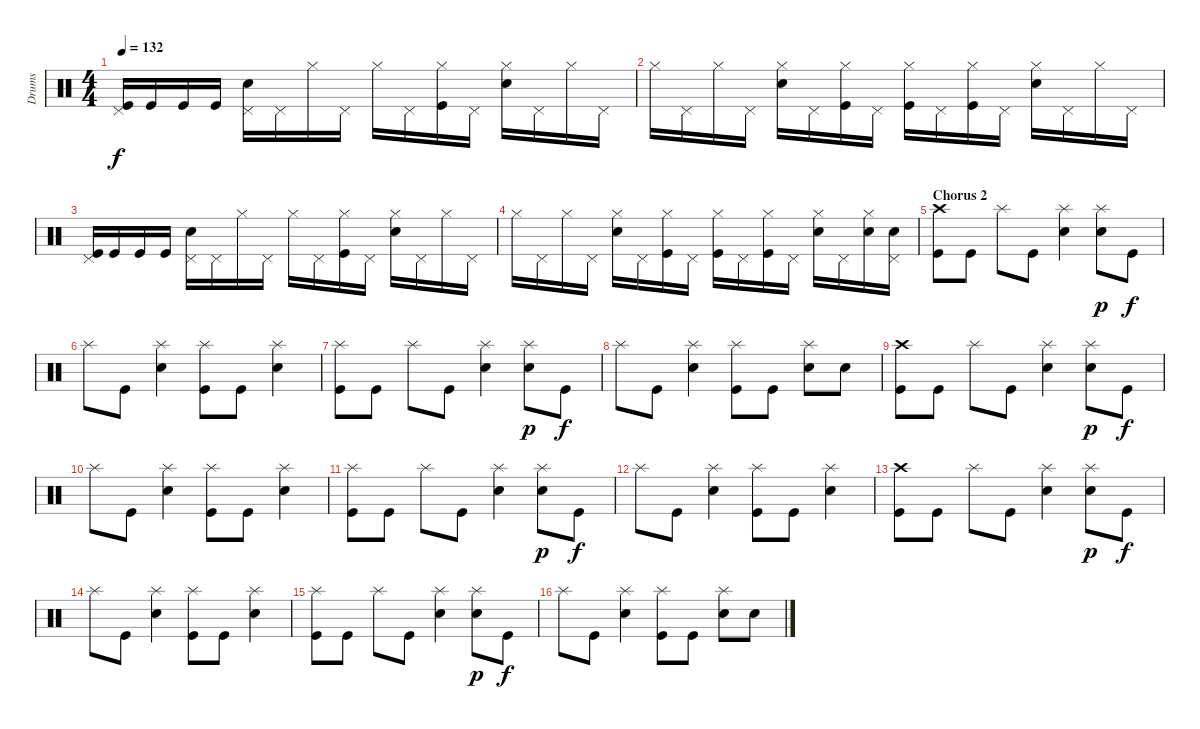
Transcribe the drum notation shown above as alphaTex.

\track ("Drums" "Drums") {instrument percussion}
\staff {score}
\articulation defaults
\ts (4 4)
\tempo 132
\clef neutral
\ks c
("Pedal Hi-Hat (hit)" "Kick (hit)").16{dy f} "Kick (hit)".16 "Kick (hit)".16 "Kick (hit)".16 ("Snare (hit) 2" "Pedal Hi-Hat (hit)").16 "Pedal Hi-Hat (hit)".16 "Hi-Hat (closed)".16 "Pedal Hi-Hat (hit)".16 "Hi-Hat (closed)".16 "Pedal Hi-Hat (hit)".16 ("Hi-Hat (closed)" "Kick (hit)").16 "Pedal Hi-Hat (hit)".16 ("Snare (hit) 2" "Hi-Hat (closed)").16 "Pedal Hi-Hat (hit)".16 "Hi-Hat (closed)".16 "Pedal Hi-Hat (hit)".16 |
"Hi-Hat (closed)".16 "Pedal Hi-Hat (hit)".16 "Hi-Hat (closed)".16 "Pedal Hi-Hat (hit)".16 ("Snare (hit) 2" "Hi-Hat (closed)").16 "Pedal Hi-Hat (hit)".16 ("Hi-Hat (closed)" "Kick (hit)").16 "Pedal Hi-Hat (hit)".16 ("Hi-Hat (closed)" "Kick (hit)").16 "Pedal Hi-Hat (hit)".16 ("Hi-Hat (closed)" "Kick (hit)").16 "Pedal Hi-Hat (hit)".16 ("Snare (hit) 2" "Hi-Hat (closed)").16 "Pedal Hi-Hat (hit)".16 "Hi-Hat (closed)".16 "Pedal Hi-Hat (hit)".16 |
("Pedal Hi-Hat (hit)" "Kick (hit)").16 "Kick (hit)".16 "Kick (hit)".16 "Kick (hit)".16 ("Snare (hit) 2" "Pedal Hi-Hat (hit)").16 "Pedal Hi-Hat (hit)".16 "Hi-Hat (closed)".16 "Pedal Hi-Hat (hit)".16 "Hi-Hat (closed)".16 "Pedal Hi-Hat (hit)".16 ("Hi-Hat (closed)" "Kick (hit)").16 "Pedal Hi-Hat (hit)".16 ("Snare (hit) 2" "Hi-Hat (closed)").16 "Pedal Hi-Hat (hit)".16 "Hi-Hat (closed)".16 "Pedal Hi-Hat (hit)".16 |
"Hi-Hat (closed)".16 "Pedal Hi-Hat (hit)".16 "Hi-Hat (closed)".16 "Pedal Hi-Hat (hit)".16 ("Snare (hit) 2" "Hi-Hat (closed)").16 "Pedal Hi-Hat (hit)".16 ("Hi-Hat (closed)" "Kick (hit)").16 "Pedal Hi-Hat (hit)".16 ("Hi-Hat (closed)" "Kick (hit)").16 "Pedal Hi-Hat (hit)".16 ("Hi-Hat (closed)" "Kick (hit)").16 "Pedal Hi-Hat (hit)".16 ("Snare (hit) 2" "Hi-Hat (closed)").16 "Pedal Hi-Hat (hit)".16 ("Snare (hit) 2" "Hi-Hat (closed)").16 ("Snare (hit) 2" "Pedal Hi-Hat (hit)").16 |
\section ("" "Chorus 2")
("Crash high (hit)" "Kick (hit)").8 "Kick (hit)".8 "Splash (hit)".8 "Kick (hit)".8 ("Snare (hit) 2" "Splash (hit)").4 ("Snare (hit) 2" "Splash (hit)").8{dy p} "Kick (hit)".8{dy f} |
"Splash (hit)".8 "Kick (hit)".8 ("Snare (hit) 2" "Splash (hit)").4 ("Splash (hit)" "Kick (hit)").8 "Kick (hit)".8 ("Snare (hit) 2" "Splash (hit)").4 |
("Splash (hit)" "Kick (hit)").8 "Kick (hit)".8 "Splash (hit)".8 "Kick (hit)".8 ("Snare (hit) 2" "Splash (hit)").4 ("Snare (hit) 2" "Splash (hit)").8{dy p} "Kick (hit)".8{dy f} |
"Splash (hit)".8 "Kick (hit)".8 ("Snare (hit) 2" "Splash (hit)").4 ("Splash (hit)" "Kick (hit)").8 "Kick (hit)".8 ("Snare (hit) 2" "Splash (hit)").8 "Snare (hit) 2".8 |
("Crash high (hit)" "Kick (hit)").8 "Kick (hit)".8 "Splash (hit)".8 "Kick (hit)".8 ("Snare (hit) 2" "Splash (hit)").4 ("Snare (hit) 2" "Splash (hit)").8{dy p} "Kick (hit)".8{dy f} |
"Splash (hit)".8 "Kick (hit)".8 ("Snare (hit) 2" "Splash (hit)").4 ("Splash (hit)" "Kick (hit)").8 "Kick (hit)".8 ("Snare (hit) 2" "Splash (hit)").4 |
("Splash (hit)" "Kick (hit)").8 "Kick (hit)".8 "Splash (hit)".8 "Kick (hit)".8 ("Snare (hit) 2" "Splash (hit)").4 ("Snare (hit) 2" "Splash (hit)").8{dy p} "Kick (hit)".8{dy f} |
"Splash (hit)".8 "Kick (hit)".8 ("Snare (hit) 2" "Splash (hit)").4 ("Splash (hit)" "Kick (hit)").8 "Kick (hit)".8 ("Snare (hit) 2" "Splash (hit)").4 |
("Crash high (hit)" "Kick (hit)").8 "Kick (hit)".8 "Splash (hit)".8 "Kick (hit)".8 ("Snare (hit) 2" "Splash (hit)").4 ("Snare (hit) 2" "Splash (hit)").8{dy p} "Kick (hit)".8{dy f} |
"Splash (hit)".8 "Kick (hit)".8 ("Snare (hit) 2" "Splash (hit)").4 ("Splash (hit)" "Kick (hit)").8 "Kick (hit)".8 ("Snare (hit) 2" "Splash (hit)").4 |
("Splash (hit)" "Kick (hit)").8 "Kick (hit)".8 "Splash (hit)".8 "Kick (hit)".8 ("Snare (hit) 2" "Splash (hit)").4 ("Snare (hit) 2" "Splash (hit)").8{dy p} "Kick (hit)".8{dy f} |
"Splash (hit)".8 "Kick (hit)".8 ("Snare (hit) 2" "Splash (hit)").4 ("Splash (hit)" "Kick (hit)").8 "Kick (hit)".8 ("Snare (hit) 2" "Splash (hit)").8 "Snare (hit) 2".8
